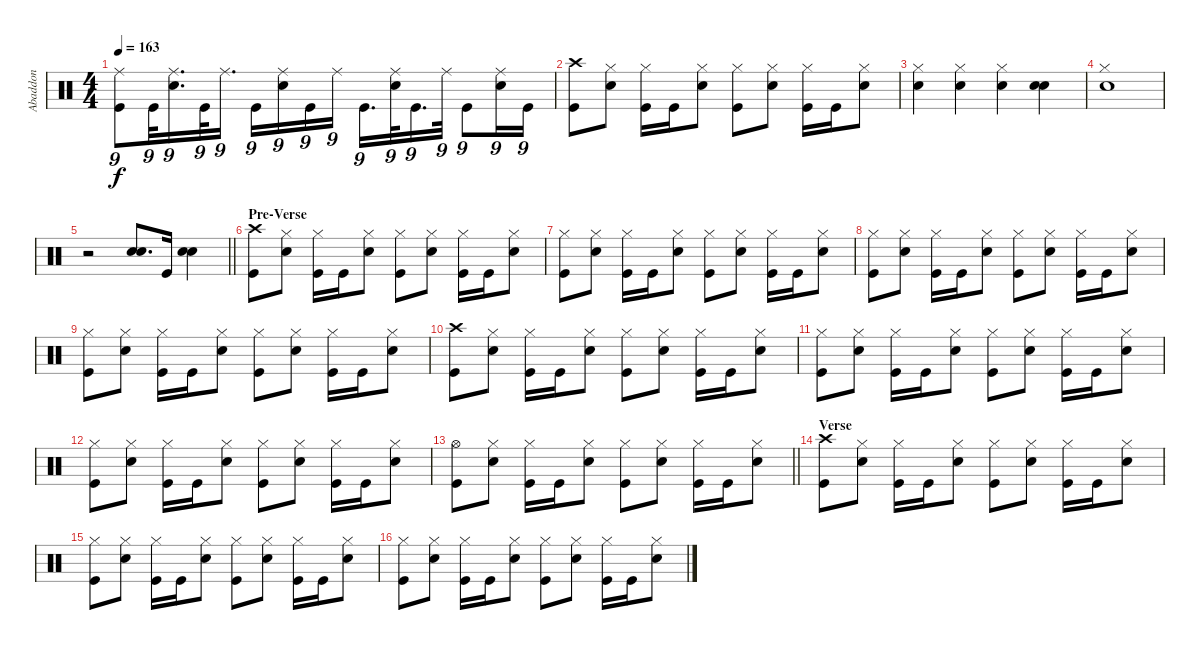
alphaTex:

\track ("Abaddon" "Abaddon") {instrument percussion}
\staff {score}
\articulation defaults
\ts (4 4)
\tempo 163
\clef neutral
\ks c
("Ride (middle)" "Kick (hit)").8{tu (9 8) dy f} "Kick (hit)".32{tu (9 8)} ("Ride (middle)" "Snare (hit) 2").16{d tu (9 8)} "Kick (hit)".32{tu (9 8)} "Ride (middle)".16{d tu (9 8)} "Kick (hit)".16{tu (9 8)} ("Ride (middle)" "Snare (hit) 2").16{tu (9 8)} "Kick (hit)".16{tu (9 8)} "Ride (middle)".16{tu (9 8)} "Kick (hit)".16{d tu (9 8)} ("Ride (middle)" "Snare (hit) 2").32{tu (9 8)} "Kick (hit)".16{d tu (9 8)} "Ride (middle)".32{tu (9 8)} "Kick (hit)".8{tu (9 8)} ("Ride (middle)" "Snare (hit) 2").16{tu (9 8)} "Kick (hit)".16{tu (9 8)} |
("Crash high (hit)" "Kick (hit)").8 ("Hi-Hat (closed)" "Snare (hit) 2").8 ("Hi-Hat (closed)" "Kick (hit)").16 "Kick (hit)".16 ("Hi-Hat (closed)" "Snare (hit) 2").8 ("Hi-Hat (closed)" "Kick (hit)").8 ("Hi-Hat (closed)" "Snare (hit) 2").8 ("Hi-Hat (closed)" "Kick (hit)").16 "Kick (hit)".16 ("Hi-Hat (closed)" "Snare (hit) 2").8 |
("Hi-Hat (closed)" "Snare (hit) 2").4 ("Hi-Hat (closed)" "Snare (hit) 2").4 ("Hi-Hat (closed)" "Snare (hit) 2").4 ("Snare (hit) 2" "Snare (hit) 2").4 |
("Hi-Hat (closed)" "Snare (hit) 2").1 |
\barLineRight lightlight
r.2 ("Snare (hit) 2" "Snare (hit) 2").8{d} "Kick (hit)".16 ("Snare (hit) 2" "Snare (hit) 2").4 |
\section ("" "Pre-Verse")
("Crash high (hit)" "Kick (hit)").8 ("Hi-Hat (closed)" "Snare (hit) 2").8 ("Hi-Hat (closed)" "Kick (hit)").16 "Kick (hit)".16 ("Hi-Hat (closed)" "Snare (hit) 2").8 ("Hi-Hat (closed)" "Kick (hit)").8 ("Hi-Hat (closed)" "Snare (hit) 2").8 ("Hi-Hat (closed)" "Kick (hit)").16 "Kick (hit)".16 ("Hi-Hat (closed)" "Snare (hit) 2").8 |
("Hi-Hat (closed)" "Kick (hit)").8 ("Hi-Hat (closed)" "Snare (hit) 2").8 ("Hi-Hat (closed)" "Kick (hit)").16 "Kick (hit)".16 ("Hi-Hat (closed)" "Snare (hit) 2").8 ("Hi-Hat (closed)" "Kick (hit)").8 ("Hi-Hat (closed)" "Snare (hit) 2").8 ("Hi-Hat (closed)" "Kick (hit)").16 "Kick (hit)".16 ("Hi-Hat (closed)" "Snare (hit) 2").8 |
("Hi-Hat (closed)" "Kick (hit)").8 ("Hi-Hat (closed)" "Snare (hit) 2").8 ("Hi-Hat (closed)" "Kick (hit)").16 "Kick (hit)".16 ("Hi-Hat (closed)" "Snare (hit) 2").8 ("Hi-Hat (closed)" "Kick (hit)").8 ("Hi-Hat (closed)" "Snare (hit) 2").8 ("Hi-Hat (closed)" "Kick (hit)").16 "Kick (hit)".16 ("Hi-Hat (closed)" "Snare (hit) 2").8 |
("Hi-Hat (closed)" "Kick (hit)").8 ("Hi-Hat (closed)" "Snare (hit) 2").8 ("Hi-Hat (closed)" "Kick (hit)").16 "Kick (hit)".16 ("Hi-Hat (closed)" "Snare (hit) 2").8 ("Hi-Hat (closed)" "Kick (hit)").8 ("Hi-Hat (closed)" "Snare (hit) 2").8 ("Hi-Hat (closed)" "Kick (hit)").16 "Kick (hit)".16 ("Hi-Hat (closed)" "Snare (hit) 2").8 |
("Crash high (hit)" "Kick (hit)").8 ("Hi-Hat (closed)" "Snare (hit) 2").8 ("Hi-Hat (closed)" "Kick (hit)").16 "Kick (hit)".16 ("Hi-Hat (closed)" "Snare (hit) 2").8 ("Hi-Hat (closed)" "Kick (hit)").8 ("Hi-Hat (closed)" "Snare (hit) 2").8 ("Hi-Hat (closed)" "Kick (hit)").16 "Kick (hit)".16 ("Hi-Hat (closed)" "Snare (hit) 2").8 |
("Hi-Hat (closed)" "Kick (hit)").8 ("Hi-Hat (closed)" "Snare (hit) 2").8 ("Hi-Hat (closed)" "Kick (hit)").16 "Kick (hit)".16 ("Hi-Hat (closed)" "Snare (hit) 2").8 ("Hi-Hat (closed)" "Kick (hit)").8 ("Hi-Hat (closed)" "Snare (hit) 2").8 ("Hi-Hat (closed)" "Kick (hit)").16 "Kick (hit)".16 ("Hi-Hat (closed)" "Snare (hit) 2").8 |
("Hi-Hat (closed)" "Kick (hit)").8 ("Hi-Hat (closed)" "Snare (hit) 2").8 ("Hi-Hat (closed)" "Kick (hit)").16 "Kick (hit)".16 ("Hi-Hat (closed)" "Snare (hit) 2").8 ("Hi-Hat (closed)" "Kick (hit)").8 ("Hi-Hat (closed)" "Snare (hit) 2").8 ("Hi-Hat (closed)" "Kick (hit)").16 "Kick (hit)".16 ("Hi-Hat (closed)" "Snare (hit) 2").8 |
\barLineRight lightlight
("Hi-Hat (open)" "Kick (hit)").8 ("Hi-Hat (closed)" "Snare (hit) 2").8 ("Hi-Hat (closed)" "Kick (hit)").16 "Kick (hit)".16 ("Hi-Hat (closed)" "Snare (hit) 2").8 ("Hi-Hat (closed)" "Kick (hit)").8 ("Hi-Hat (closed)" "Snare (hit) 2").8 ("Hi-Hat (closed)" "Kick (hit)").16 "Kick (hit)".16 ("Hi-Hat (closed)" "Snare (hit) 2").8 |
\section ("" "Verse")
("Crash high (hit)" "Kick (hit)").8 ("Hi-Hat (closed)" "Snare (hit) 2").8 ("Hi-Hat (closed)" "Kick (hit)").16 "Kick (hit)".16 ("Hi-Hat (closed)" "Snare (hit) 2").8 ("Hi-Hat (closed)" "Kick (hit)").8 ("Hi-Hat (closed)" "Snare (hit) 2").8 ("Hi-Hat (closed)" "Kick (hit)").16 "Kick (hit)".16 ("Hi-Hat (closed)" "Snare (hit) 2").8 |
("Hi-Hat (closed)" "Kick (hit)").8 ("Hi-Hat (closed)" "Snare (hit) 2").8 ("Hi-Hat (closed)" "Kick (hit)").16 "Kick (hit)".16 ("Hi-Hat (closed)" "Snare (hit) 2").8 ("Hi-Hat (closed)" "Kick (hit)").8 ("Hi-Hat (closed)" "Snare (hit) 2").8 ("Hi-Hat (closed)" "Kick (hit)").16 "Kick (hit)".16 ("Hi-Hat (closed)" "Snare (hit) 2").8 |
("Hi-Hat (closed)" "Kick (hit)").8 ("Hi-Hat (closed)" "Snare (hit) 2").8 ("Hi-Hat (closed)" "Kick (hit)").16 "Kick (hit)".16 ("Hi-Hat (closed)" "Snare (hit) 2").8 ("Hi-Hat (closed)" "Kick (hit)").8 ("Hi-Hat (closed)" "Snare (hit) 2").8 ("Hi-Hat (closed)" "Kick (hit)").16 "Kick (hit)".16 ("Hi-Hat (closed)" "Snare (hit) 2").8
